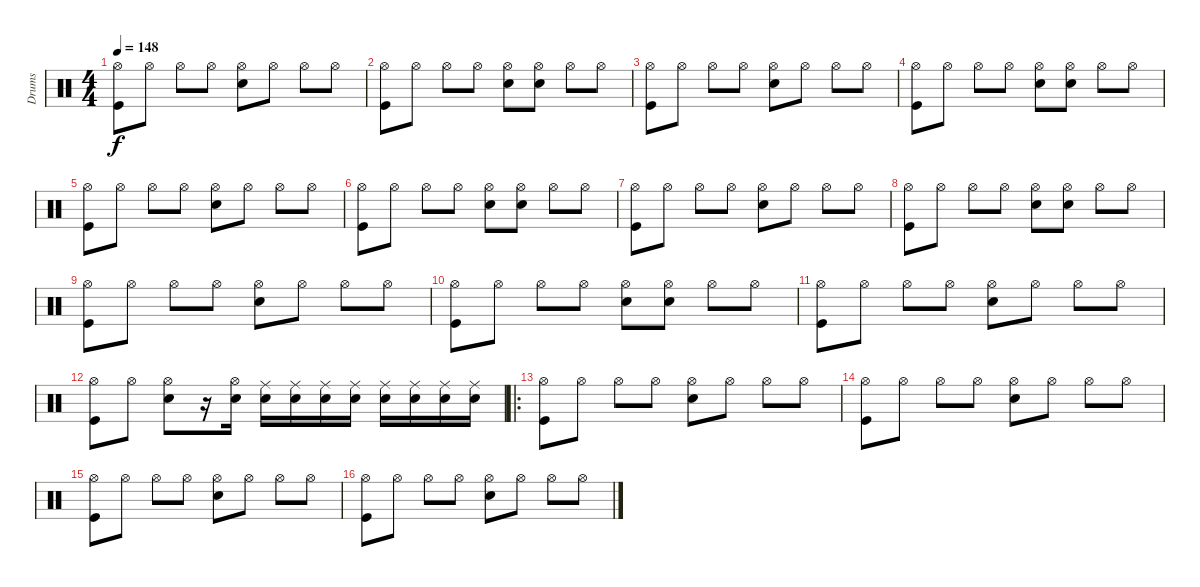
\track ("Drums" "Drums") {instrument percussion}
\staff {score}
\articulation defaults
\ts (4 4)
\tempo 148
\clef neutral
\ks c
("Hi-Hat (open)" "Kick (hit)").8{dy f} "Hi-Hat (open)".8 "Hi-Hat (open)".8 "Hi-Hat (open)".8 ("Snare (hit) 2" "Hi-Hat (open)").8 "Hi-Hat (open)".8 "Hi-Hat (open)".8 "Hi-Hat (open)".8 |
("Kick (hit)" "Hi-Hat (open)").8 "Hi-Hat (open)".8 "Hi-Hat (open)".8 "Hi-Hat (open)".8 ("Snare (hit) 2" "Hi-Hat (open)").8 ("Hi-Hat (open)" "Snare (hit) 2").8 "Hi-Hat (open)".8 "Hi-Hat (open)".8 |
("Kick (hit)" "Hi-Hat (open)").8 "Hi-Hat (open)".8 "Hi-Hat (open)".8 "Hi-Hat (open)".8 ("Snare (hit) 2" "Hi-Hat (open)").8 "Hi-Hat (open)".8 "Hi-Hat (open)".8 "Hi-Hat (open)".8 |
("Kick (hit)" "Hi-Hat (open)").8 "Hi-Hat (open)".8 "Hi-Hat (open)".8 "Hi-Hat (open)".8 ("Snare (hit) 2" "Hi-Hat (open)").8 ("Hi-Hat (open)" "Snare (hit) 2").8 "Hi-Hat (open)".8 "Hi-Hat (open)".8 |
("Hi-Hat (open)" "Kick (hit)").8 "Hi-Hat (open)".8 "Hi-Hat (open)".8 "Hi-Hat (open)".8 ("Snare (hit) 2" "Hi-Hat (open)").8 "Hi-Hat (open)".8 "Hi-Hat (open)".8 "Hi-Hat (open)".8 |
("Kick (hit)" "Hi-Hat (open)").8 "Hi-Hat (open)".8 "Hi-Hat (open)".8 "Hi-Hat (open)".8 ("Snare (hit) 2" "Hi-Hat (open)").8 ("Hi-Hat (open)" "Snare (hit) 2").8 "Hi-Hat (open)".8 "Hi-Hat (open)".8 |
("Kick (hit)" "Hi-Hat (open)").8 "Hi-Hat (open)".8 "Hi-Hat (open)".8 "Hi-Hat (open)".8 ("Snare (hit) 2" "Hi-Hat (open)").8 "Hi-Hat (open)".8 "Hi-Hat (open)".8 "Hi-Hat (open)".8 |
("Kick (hit)" "Hi-Hat (open)").8 "Hi-Hat (open)".8 "Hi-Hat (open)".8 "Hi-Hat (open)".8 ("Snare (hit) 2" "Hi-Hat (open)").8 ("Hi-Hat (open)" "Snare (hit) 2").8 "Hi-Hat (open)".8 "Hi-Hat (open)".8 |
("Hi-Hat (open)" "Kick (hit)").8 "Hi-Hat (open)".8 "Hi-Hat (open)".8 "Hi-Hat (open)".8 ("Snare (hit) 2" "Hi-Hat (open)").8 "Hi-Hat (open)".8 "Hi-Hat (open)".8 "Hi-Hat (open)".8 |
("Kick (hit)" "Hi-Hat (open)").8 "Hi-Hat (open)".8 "Hi-Hat (open)".8 "Hi-Hat (open)".8 ("Snare (hit) 2" "Hi-Hat (open)").8 ("Hi-Hat (open)" "Snare (hit) 2").8 "Hi-Hat (open)".8 "Hi-Hat (open)".8 |
("Kick (hit)" "Hi-Hat (open)").8 "Hi-Hat (open)".8 "Hi-Hat (open)".8 "Hi-Hat (open)".8 ("Snare (hit) 2" "Hi-Hat (open)").8 "Hi-Hat (open)".8 "Hi-Hat (open)".8 "Hi-Hat (open)".8 |
("Kick (hit)" "Hi-Hat (open)").8 "Hi-Hat (open)".8 ("Snare (hit) 2" "Hi-Hat (open)").8 r.16 ("Snare (hit) 2" "Hi-Hat (open)").16 ("Snare (hit) 2" "Ride (middle)").16 ("Snare (hit) 2" "Ride (middle)").16 ("Snare (hit) 2" "Ride (middle)").16 ("Snare (hit) 2" "Ride (middle)").16 ("Snare (hit) 2" "Ride (middle)").16 ("Snare (hit) 2" "Ride (middle)").16 ("Snare (hit) 2" "Ride (middle)").16 ("Snare (hit) 2" "Ride (middle)").16 |
\ro
("Hi-Hat (open)" "Kick (hit)").8 "Hi-Hat (open)".8 "Hi-Hat (open)".8 "Hi-Hat (open)".8 ("Snare (hit) 2" "Hi-Hat (open)").8 "Hi-Hat (open)".8 "Hi-Hat (open)".8 "Hi-Hat (open)".8 |
("Hi-Hat (open)" "Kick (hit)").8 "Hi-Hat (open)".8 "Hi-Hat (open)".8 "Hi-Hat (open)".8 ("Snare (hit) 2" "Hi-Hat (open)").8 "Hi-Hat (open)".8 "Hi-Hat (open)".8 "Hi-Hat (open)".8 |
("Hi-Hat (open)" "Kick (hit)").8 "Hi-Hat (open)".8 "Hi-Hat (open)".8 "Hi-Hat (open)".8 ("Snare (hit) 2" "Hi-Hat (open)").8 "Hi-Hat (open)".8 "Hi-Hat (open)".8 "Hi-Hat (open)".8 |
("Hi-Hat (open)" "Kick (hit)").8 "Hi-Hat (open)".8 "Hi-Hat (open)".8 "Hi-Hat (open)".8 ("Snare (hit) 2" "Hi-Hat (open)").8 "Hi-Hat (open)".8 "Hi-Hat (open)".8 "Hi-Hat (open)".8
